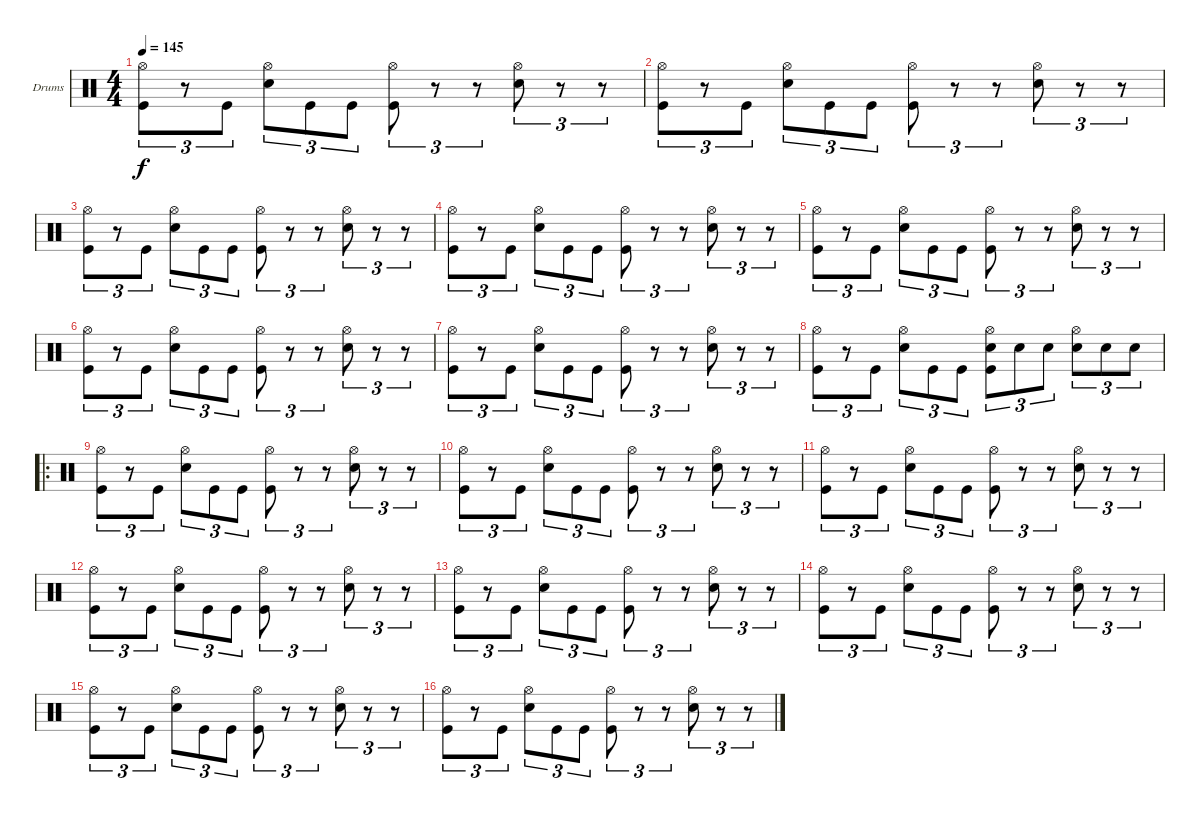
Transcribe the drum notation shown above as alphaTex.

\bracketExtendMode groupsimilarinstruments
\firstSystemTrackNameOrientation horizontal
\otherSystemsTrackNameOrientation horizontal
\track ("FREDRIK ANDERSSON" "Drums") {instrument percussion}
\staff {score}
\articulation defaults
\ts (4 4)
\tempo 145
\clef neutral
\ks c
("Hi-Hat (open)" "Kick (hit)").8{tu (3 2) dy f} r.8{tu (3 2)} "Kick (hit)".8{tu (3 2)} ("Hi-Hat (open)" "Snare (hit) 2").8{tu (3 2)} "Kick (hit)".8{tu (3 2)} "Kick (hit)".8{tu (3 2)} ("Hi-Hat (open)" "Kick (hit)").8{tu (3 2)} r.8{tu (3 2)} r.8{tu (3 2)} ("Hi-Hat (open)" "Snare (hit) 2").8{tu (3 2)} r.8{tu (3 2)} r.8{tu (3 2)} |
("Hi-Hat (open)" "Kick (hit)").8{tu (3 2)} r.8{tu (3 2)} "Kick (hit)".8{tu (3 2)} ("Hi-Hat (open)" "Snare (hit) 2").8{tu (3 2)} "Kick (hit)".8{tu (3 2)} "Kick (hit)".8{tu (3 2)} ("Hi-Hat (open)" "Kick (hit)").8{tu (3 2)} r.8{tu (3 2)} r.8{tu (3 2)} ("Hi-Hat (open)" "Snare (hit) 2").8{tu (3 2)} r.8{tu (3 2)} r.8{tu (3 2)} |
("Hi-Hat (open)" "Kick (hit)").8{tu (3 2)} r.8{tu (3 2)} "Kick (hit)".8{tu (3 2)} ("Hi-Hat (open)" "Snare (hit) 2").8{tu (3 2)} "Kick (hit)".8{tu (3 2)} "Kick (hit)".8{tu (3 2)} ("Hi-Hat (open)" "Kick (hit)").8{tu (3 2)} r.8{tu (3 2)} r.8{tu (3 2)} ("Hi-Hat (open)" "Snare (hit) 2").8{tu (3 2)} r.8{tu (3 2)} r.8{tu (3 2)} |
("Hi-Hat (open)" "Kick (hit)").8{tu (3 2)} r.8{tu (3 2)} "Kick (hit)".8{tu (3 2)} ("Hi-Hat (open)" "Snare (hit) 2").8{tu (3 2)} "Kick (hit)".8{tu (3 2)} "Kick (hit)".8{tu (3 2)} ("Hi-Hat (open)" "Kick (hit)").8{tu (3 2)} r.8{tu (3 2)} r.8{tu (3 2)} ("Hi-Hat (open)" "Snare (hit) 2").8{tu (3 2)} r.8{tu (3 2)} r.8{tu (3 2)} |
("Hi-Hat (open)" "Kick (hit)").8{tu (3 2)} r.8{tu (3 2)} "Kick (hit)".8{tu (3 2)} ("Hi-Hat (open)" "Snare (hit) 2").8{tu (3 2)} "Kick (hit)".8{tu (3 2)} "Kick (hit)".8{tu (3 2)} ("Hi-Hat (open)" "Kick (hit)").8{tu (3 2)} r.8{tu (3 2)} r.8{tu (3 2)} ("Hi-Hat (open)" "Snare (hit) 2").8{tu (3 2)} r.8{tu (3 2)} r.8{tu (3 2)} |
("Hi-Hat (open)" "Kick (hit)").8{tu (3 2)} r.8{tu (3 2)} "Kick (hit)".8{tu (3 2)} ("Hi-Hat (open)" "Snare (hit) 2").8{tu (3 2)} "Kick (hit)".8{tu (3 2)} "Kick (hit)".8{tu (3 2)} ("Hi-Hat (open)" "Kick (hit)").8{tu (3 2)} r.8{tu (3 2)} r.8{tu (3 2)} ("Hi-Hat (open)" "Snare (hit) 2").8{tu (3 2)} r.8{tu (3 2)} r.8{tu (3 2)} |
("Hi-Hat (open)" "Kick (hit)").8{tu (3 2)} r.8{tu (3 2)} "Kick (hit)".8{tu (3 2)} ("Hi-Hat (open)" "Snare (hit) 2").8{tu (3 2)} "Kick (hit)".8{tu (3 2)} "Kick (hit)".8{tu (3 2)} ("Hi-Hat (open)" "Kick (hit)").8{tu (3 2)} r.8{tu (3 2)} r.8{tu (3 2)} ("Hi-Hat (open)" "Snare (hit) 2").8{tu (3 2)} r.8{tu (3 2)} r.8{tu (3 2)} |
("Hi-Hat (open)" "Kick (hit)").8{tu (3 2)} r.8{tu (3 2)} "Kick (hit)".8{tu (3 2)} ("Hi-Hat (open)" "Snare (hit) 2").8{tu (3 2)} "Kick (hit)".8{tu (3 2)} "Kick (hit)".8{tu (3 2)} ("Hi-Hat (open)" "Snare (hit) 2" "Kick (hit)").8{tu (3 2)} "Snare (hit) 2".8{tu (3 2)} "Snare (hit) 2".8{tu (3 2)} ("Hi-Hat (open)" "Snare (hit) 2").8{tu (3 2)} "Snare (hit) 2".8{tu (3 2)} "Snare (hit) 2".8{tu (3 2)} |
\ro
("Hi-Hat (open)" "Kick (hit)").8{tu (3 2)} r.8{tu (3 2)} "Kick (hit)".8{tu (3 2)} ("Hi-Hat (open)" "Snare (hit) 2").8{tu (3 2)} "Kick (hit)".8{tu (3 2)} "Kick (hit)".8{tu (3 2)} ("Hi-Hat (open)" "Kick (hit)").8{tu (3 2)} r.8{tu (3 2)} r.8{tu (3 2)} ("Hi-Hat (open)" "Snare (hit) 2").8{tu (3 2)} r.8{tu (3 2)} r.8{tu (3 2)} |
("Hi-Hat (open)" "Kick (hit)").8{tu (3 2)} r.8{tu (3 2)} "Kick (hit)".8{tu (3 2)} ("Hi-Hat (open)" "Snare (hit) 2").8{tu (3 2)} "Kick (hit)".8{tu (3 2)} "Kick (hit)".8{tu (3 2)} ("Hi-Hat (open)" "Kick (hit)").8{tu (3 2)} r.8{tu (3 2)} r.8{tu (3 2)} ("Hi-Hat (open)" "Snare (hit) 2").8{tu (3 2)} r.8{tu (3 2)} r.8{tu (3 2)} |
("Hi-Hat (open)" "Kick (hit)").8{tu (3 2)} r.8{tu (3 2)} "Kick (hit)".8{tu (3 2)} ("Hi-Hat (open)" "Snare (hit) 2").8{tu (3 2)} "Kick (hit)".8{tu (3 2)} "Kick (hit)".8{tu (3 2)} ("Hi-Hat (open)" "Kick (hit)").8{tu (3 2)} r.8{tu (3 2)} r.8{tu (3 2)} ("Hi-Hat (open)" "Snare (hit) 2").8{tu (3 2)} r.8{tu (3 2)} r.8{tu (3 2)} |
("Hi-Hat (open)" "Kick (hit)").8{tu (3 2)} r.8{tu (3 2)} "Kick (hit)".8{tu (3 2)} ("Hi-Hat (open)" "Snare (hit) 2").8{tu (3 2)} "Kick (hit)".8{tu (3 2)} "Kick (hit)".8{tu (3 2)} ("Hi-Hat (open)" "Kick (hit)").8{tu (3 2)} r.8{tu (3 2)} r.8{tu (3 2)} ("Hi-Hat (open)" "Snare (hit) 2").8{tu (3 2)} r.8{tu (3 2)} r.8{tu (3 2)} |
("Hi-Hat (open)" "Kick (hit)").8{tu (3 2)} r.8{tu (3 2)} "Kick (hit)".8{tu (3 2)} ("Hi-Hat (open)" "Snare (hit) 2").8{tu (3 2)} "Kick (hit)".8{tu (3 2)} "Kick (hit)".8{tu (3 2)} ("Hi-Hat (open)" "Kick (hit)").8{tu (3 2)} r.8{tu (3 2)} r.8{tu (3 2)} ("Hi-Hat (open)" "Snare (hit) 2").8{tu (3 2)} r.8{tu (3 2)} r.8{tu (3 2)} |
("Hi-Hat (open)" "Kick (hit)").8{tu (3 2)} r.8{tu (3 2)} "Kick (hit)".8{tu (3 2)} ("Hi-Hat (open)" "Snare (hit) 2").8{tu (3 2)} "Kick (hit)".8{tu (3 2)} "Kick (hit)".8{tu (3 2)} ("Hi-Hat (open)" "Kick (hit)").8{tu (3 2)} r.8{tu (3 2)} r.8{tu (3 2)} ("Hi-Hat (open)" "Snare (hit) 2").8{tu (3 2)} r.8{tu (3 2)} r.8{tu (3 2)} |
("Hi-Hat (open)" "Kick (hit)").8{tu (3 2)} r.8{tu (3 2)} "Kick (hit)".8{tu (3 2)} ("Hi-Hat (open)" "Snare (hit) 2").8{tu (3 2)} "Kick (hit)".8{tu (3 2)} "Kick (hit)".8{tu (3 2)} ("Hi-Hat (open)" "Kick (hit)").8{tu (3 2)} r.8{tu (3 2)} r.8{tu (3 2)} ("Hi-Hat (open)" "Snare (hit) 2").8{tu (3 2)} r.8{tu (3 2)} r.8{tu (3 2)} |
("Hi-Hat (open)" "Kick (hit)").8{tu (3 2)} r.8{tu (3 2)} "Kick (hit)".8{tu (3 2)} ("Hi-Hat (open)" "Snare (hit) 2").8{tu (3 2)} "Kick (hit)".8{tu (3 2)} "Kick (hit)".8{tu (3 2)} ("Hi-Hat (open)" "Kick (hit)").8{tu (3 2)} r.8{tu (3 2)} r.8{tu (3 2)} ("Hi-Hat (open)" "Snare (hit) 2").8{tu (3 2)} r.8{tu (3 2)} r.8{tu (3 2)}
